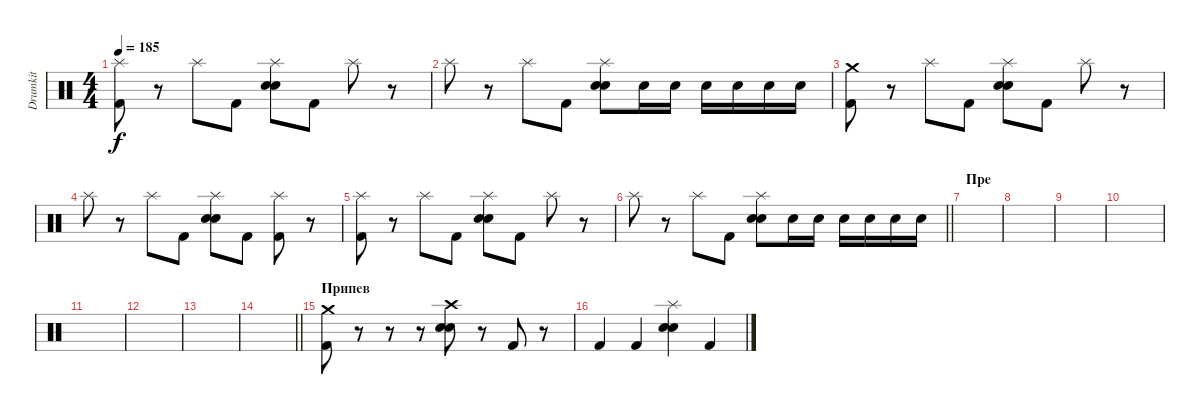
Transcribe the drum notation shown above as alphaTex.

\track ("Drumkit" "Drumkit") {instrument percussion}
\staff {score}
\articulation defaults
\ts (4 4)
\tempo 185
\clef neutral
\ks c
("Splash (hit)" "Kick (hit) 2").8{dy f} r.8 "Splash (hit)".8 "Kick (hit) 2".8 ("Splash (hit)" "Electric Snare (hit)" "Snare (hit) 2").8 "Kick (hit) 2".8 "Splash (hit)".8 r.8 |
"Splash (hit)".8 r.8 "Splash (hit)".8 "Kick (hit) 2".8 ("Splash (hit)" "Electric Snare (hit)" "Snare (hit) 2").8 "Electric Snare (hit)".16 "Electric Snare (hit)".16 "Electric Snare (hit)".16 "Electric Snare (hit)".16 "Electric Snare (hit)".16 "Electric Snare (hit)".16 |
("Crash medium (hit)" "Kick (hit) 2").8 r.8 "Splash (hit)".8 "Kick (hit) 2".8 ("Splash (hit)" "Electric Snare (hit)" "Snare (hit) 2").8 "Kick (hit) 2".8 "Splash (hit)".8 r.8 |
"Splash (hit)".8 r.8 "Splash (hit)".8 "Kick (hit) 2".8 ("Splash (hit)" "Electric Snare (hit)" "Snare (hit) 2").8 "Kick (hit) 2".8 ("Splash (hit)" "Kick (hit) 2").8 r.8 |
("Splash (hit)" "Kick (hit) 2").8 r.8 "Splash (hit)".8 "Kick (hit) 2".8 ("Splash (hit)" "Electric Snare (hit)" "Snare (hit) 2").8 "Kick (hit) 2".8 "Splash (hit)".8 r.8 |
\barLineRight lightlight "Splash (hit)".8
r.8 "Splash (hit)".8 "Kick (hit) 2".8 ("Splash (hit)" "Electric Snare (hit)" "Snare (hit) 2").8 "Electric Snare (hit)".16 "Electric Snare (hit)".16 "Electric Snare (hit)".16 "Electric Snare (hit)".16 "Electric Snare (hit)".16 "Electric Snare (hit)".16 |
\section ("" "Пре")
|
|
|
|
|
|
|
\barLineRight lightlight
|
\section ("" "Припев")
("Crash medium (hit)" "Kick (hit) 2").8 r.8 r.8 r.8 ("Crash high (hit)" "Electric Snare (hit)" "Snare (hit) 2").8 r.8 "Kick (hit) 2".8 r.8 |
"Kick (hit) 2".4 "Kick (hit) 2".4 ("Splash (hit)" "Electric Snare (hit)" "Snare (hit) 2").4 "Kick (hit) 2".4
